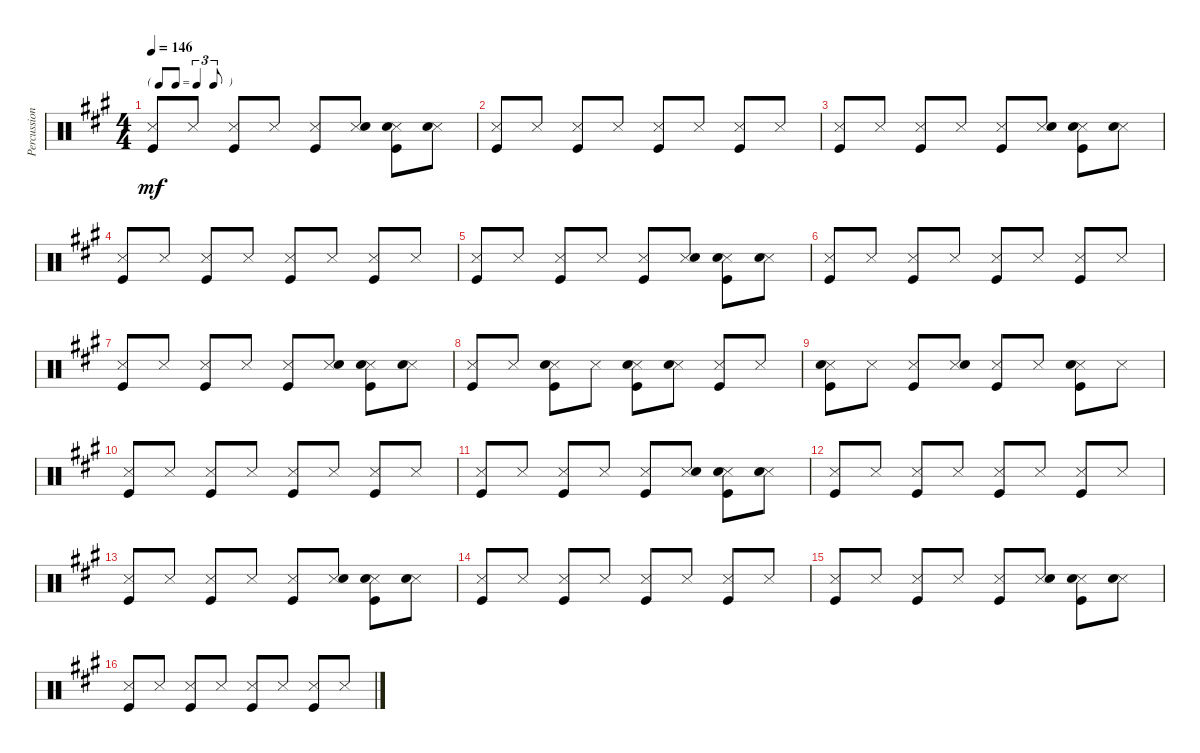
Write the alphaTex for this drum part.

\track ("Percussion" "Percussion") {instrument percussion}
\staff {score}
\articulation defaults
\ts (4 4)
\tf triplet8th
\tempo 146
\clef neutral
\ks a
("Snare (side stick) 3" "Kick (hit)").8{dy mf} "Snare (side stick) 3".8 ("Snare (side stick) 3" "Kick (hit)").8 "Snare (side stick) 3".8 ("Snare (side stick) 3" "Kick (hit)").8 ("Snare (side stick) 3" "Snare (hit) 2").8 ("Snare (side stick) 3" "Snare (hit) 2" "Kick (hit)").8 ("Snare (side stick) 3" "Snare (hit) 2").8 |
("Snare (side stick) 3" "Kick (hit)").8 "Snare (side stick) 3".8 ("Snare (side stick) 3" "Kick (hit)").8 "Snare (side stick) 3".8 ("Snare (side stick) 3" "Kick (hit)").8 "Snare (side stick) 3".8 ("Snare (side stick) 3" "Kick (hit)").8 "Snare (side stick) 3".8 |
("Snare (side stick) 3" "Kick (hit)").8 "Snare (side stick) 3".8 ("Snare (side stick) 3" "Kick (hit)").8 "Snare (side stick) 3".8 ("Snare (side stick) 3" "Kick (hit)").8 ("Snare (side stick) 3" "Snare (hit) 2").8 ("Snare (side stick) 3" "Snare (hit) 2" "Kick (hit)").8 ("Snare (side stick) 3" "Snare (hit) 2").8 |
("Snare (side stick) 3" "Kick (hit)").8 "Snare (side stick) 3".8 ("Snare (side stick) 3" "Kick (hit)").8 "Snare (side stick) 3".8 ("Snare (side stick) 3" "Kick (hit)").8 "Snare (side stick) 3".8 ("Snare (side stick) 3" "Kick (hit)").8 "Snare (side stick) 3".8 |
("Snare (side stick) 3" "Kick (hit)").8 "Snare (side stick) 3".8 ("Snare (side stick) 3" "Kick (hit)").8 "Snare (side stick) 3".8 ("Snare (side stick) 3" "Kick (hit)").8 ("Snare (side stick) 3" "Snare (hit) 2").8 ("Snare (side stick) 3" "Snare (hit) 2" "Kick (hit)").8 ("Snare (side stick) 3" "Snare (hit) 2").8 |
("Snare (side stick) 3" "Kick (hit)").8 "Snare (side stick) 3".8 ("Snare (side stick) 3" "Kick (hit)").8 "Snare (side stick) 3".8 ("Snare (side stick) 3" "Kick (hit)").8 "Snare (side stick) 3".8 ("Snare (side stick) 3" "Kick (hit)").8 "Snare (side stick) 3".8 |
("Snare (side stick) 3" "Kick (hit)").8 "Snare (side stick) 3".8 ("Snare (side stick) 3" "Kick (hit)").8 "Snare (side stick) 3".8 ("Snare (side stick) 3" "Kick (hit)").8 ("Snare (side stick) 3" "Snare (hit) 2").8 ("Snare (side stick) 3" "Snare (hit) 2" "Kick (hit)").8 ("Snare (side stick) 3" "Snare (hit) 2").8 |
("Snare (side stick) 3" "Kick (hit)").8 "Snare (side stick) 3".8 ("Snare (side stick) 3" "Snare (hit) 2" "Kick (hit)").8 "Snare (side stick) 3".8 ("Snare (side stick) 3" "Snare (hit) 2" "Kick (hit)").8 ("Snare (side stick) 3" "Snare (hit) 2").8 ("Snare (side stick) 3" "Kick (hit)").8 "Snare (side stick) 3".8 |
("Snare (side stick) 3" "Snare (hit) 2" "Kick (hit)").8 "Snare (side stick) 3".8 ("Snare (side stick) 3" "Kick (hit)").8 ("Snare (side stick) 3" "Snare (hit) 2").8 ("Snare (side stick) 3" "Kick (hit)").8 "Snare (side stick) 3".8 ("Snare (side stick) 3" "Snare (hit) 2" "Kick (hit)").8 "Snare (side stick) 3".8 |
("Snare (side stick) 3" "Kick (hit)").8 "Snare (side stick) 3".8 ("Snare (side stick) 3" "Kick (hit)").8 "Snare (side stick) 3".8 ("Snare (side stick) 3" "Kick (hit)").8 "Snare (side stick) 3".8 ("Snare (side stick) 3" "Kick (hit)").8 "Snare (side stick) 3".8 |
("Snare (side stick) 3" "Kick (hit)").8 "Snare (side stick) 3".8 ("Snare (side stick) 3" "Kick (hit)").8 "Snare (side stick) 3".8 ("Snare (side stick) 3" "Kick (hit)").8 ("Snare (side stick) 3" "Snare (hit) 2").8 ("Snare (side stick) 3" "Snare (hit) 2" "Kick (hit)").8 ("Snare (side stick) 3" "Snare (hit) 2").8 |
("Snare (side stick) 3" "Kick (hit)").8 "Snare (side stick) 3".8 ("Snare (side stick) 3" "Kick (hit)").8 "Snare (side stick) 3".8 ("Snare (side stick) 3" "Kick (hit)").8 "Snare (side stick) 3".8 ("Snare (side stick) 3" "Kick (hit)").8 "Snare (side stick) 3".8 |
("Snare (side stick) 3" "Kick (hit)").8 "Snare (side stick) 3".8 ("Snare (side stick) 3" "Kick (hit)").8 "Snare (side stick) 3".8 ("Snare (side stick) 3" "Kick (hit)").8 ("Snare (side stick) 3" "Snare (hit) 2").8 ("Snare (side stick) 3" "Snare (hit) 2" "Kick (hit)").8 ("Snare (side stick) 3" "Snare (hit) 2").8 |
("Snare (side stick) 3" "Kick (hit)").8 "Snare (side stick) 3".8 ("Snare (side stick) 3" "Kick (hit)").8 "Snare (side stick) 3".8 ("Snare (side stick) 3" "Kick (hit)").8 "Snare (side stick) 3".8 ("Snare (side stick) 3" "Kick (hit)").8 "Snare (side stick) 3".8 |
("Snare (side stick) 3" "Kick (hit)").8 "Snare (side stick) 3".8 ("Snare (side stick) 3" "Kick (hit)").8 "Snare (side stick) 3".8 ("Snare (side stick) 3" "Kick (hit)").8 ("Snare (side stick) 3" "Snare (hit) 2").8 ("Snare (side stick) 3" "Snare (hit) 2" "Kick (hit)").8 ("Snare (side stick) 3" "Snare (hit) 2").8 |
("Snare (side stick) 3" "Kick (hit)").8 "Snare (side stick) 3".8 ("Snare (side stick) 3" "Kick (hit)").8 "Snare (side stick) 3".8 ("Snare (side stick) 3" "Kick (hit)").8 "Snare (side stick) 3".8 ("Snare (side stick) 3" "Kick (hit)").8 "Snare (side stick) 3".8
